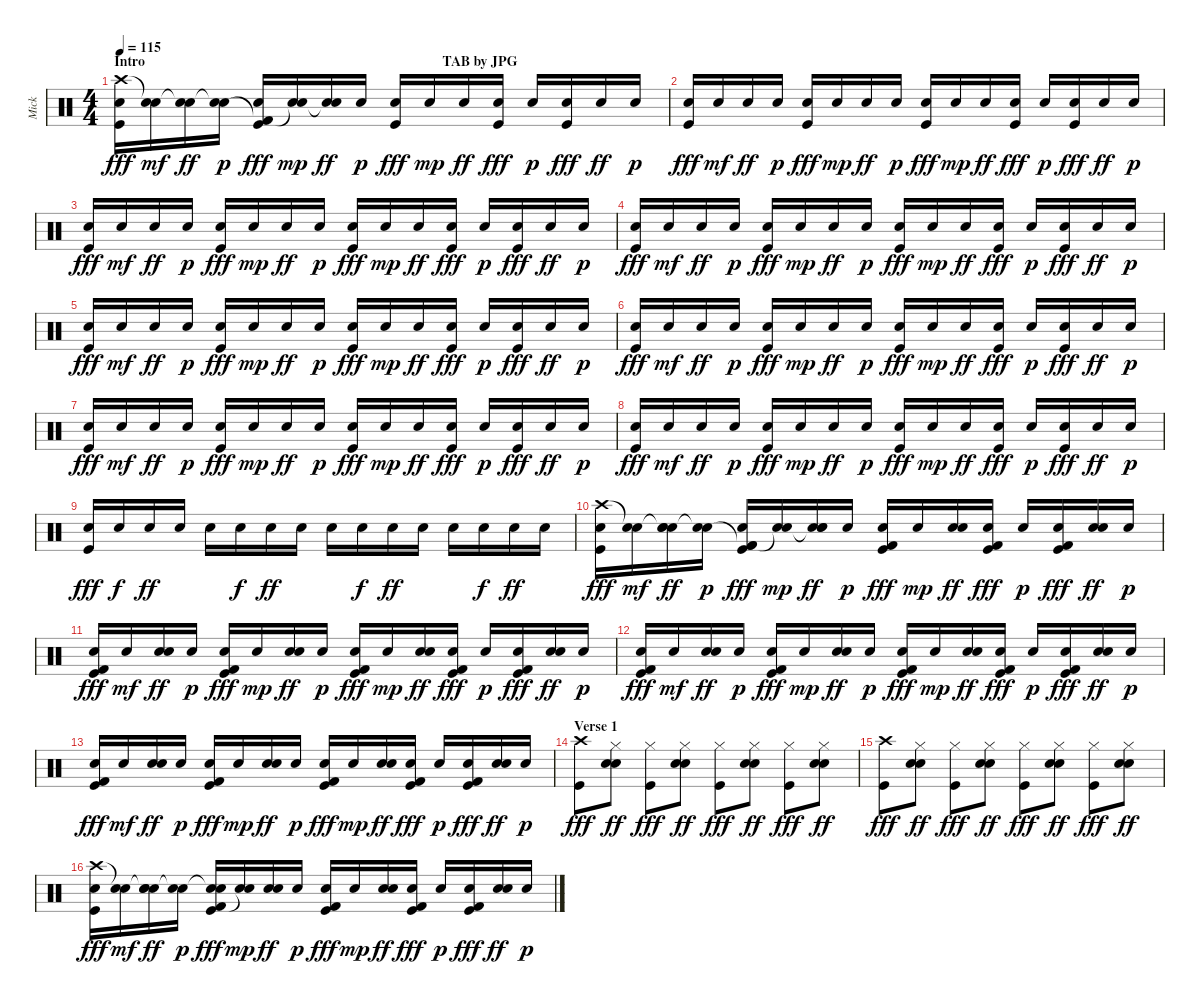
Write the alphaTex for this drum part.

\track ("Mick" "Mick") {instrument percussion}
\staff {score}
\articulation defaults
\ts (4 4)
\section ("" "Intro                                                                                     TAB by JPG")
\tempo 115
\clef neutral
\ks c
("Crash high (hit)" "Electric Snare (hit)" "Kick (hit)").16{dy fff volume 15} ("Snare (hit)"{t} "Electric Snare (hit)").16{dy mf} ("Snare (hit)"{t} "Electric Snare (hit)").16{dy ff} ("Snare (hit)"{t} "Electric Snare (hit)").16{dy p} ("Kick (hit) 2"{t} "Electric Snare (hit)" "Kick (hit)").16{dy fff} ("Snare (hit)"{t} "Electric Snare (hit)").16{dy mp} ("Snare (hit)"{t} "Electric Snare (hit)").16{dy ff} "Electric Snare (hit)".16{dy p} ("Electric Snare (hit)" "Kick (hit)").16{dy fff} "Electric Snare (hit)".16{dy mp} "Electric Snare (hit)".16{dy ff} ("Electric Snare (hit)" "Kick (hit)").16{dy fff} "Electric Snare (hit)".16{dy p} ("Electric Snare (hit)" "Kick (hit)").16{dy fff} "Electric Snare (hit)".16{dy ff} "Electric Snare (hit)".16{dy p} |
("Electric Snare (hit)" "Kick (hit)").16{dy fff} "Electric Snare (hit)".16{dy mf} "Electric Snare (hit)".16{dy ff} "Electric Snare (hit)".16{dy p} ("Electric Snare (hit)" "Kick (hit)").16{dy fff} "Electric Snare (hit)".16{dy mp} "Electric Snare (hit)".16{dy ff} "Electric Snare (hit)".16{dy p} ("Electric Snare (hit)" "Kick (hit)").16{dy fff} "Electric Snare (hit)".16{dy mp} "Electric Snare (hit)".16{dy ff} ("Electric Snare (hit)" "Kick (hit)").16{dy fff} "Electric Snare (hit)".16{dy p} ("Electric Snare (hit)" "Kick (hit)").16{dy fff} "Electric Snare (hit)".16{dy ff} "Electric Snare (hit)".16{dy p} |
("Electric Snare (hit)" "Kick (hit)").16{dy fff} "Electric Snare (hit)".16{dy mf} "Electric Snare (hit)".16{dy ff} "Electric Snare (hit)".16{dy p} ("Electric Snare (hit)" "Kick (hit)").16{dy fff} "Electric Snare (hit)".16{dy mp} "Electric Snare (hit)".16{dy ff} "Electric Snare (hit)".16{dy p} ("Electric Snare (hit)" "Kick (hit)").16{dy fff} "Electric Snare (hit)".16{dy mp} "Electric Snare (hit)".16{dy ff} ("Electric Snare (hit)" "Kick (hit)").16{dy fff} "Electric Snare (hit)".16{dy p} ("Electric Snare (hit)" "Kick (hit)").16{dy fff} "Electric Snare (hit)".16{dy ff} "Electric Snare (hit)".16{dy p} |
("Electric Snare (hit)" "Kick (hit)").16{dy fff} "Electric Snare (hit)".16{dy mf} "Electric Snare (hit)".16{dy ff} "Electric Snare (hit)".16{dy p} ("Electric Snare (hit)" "Kick (hit)").16{dy fff} "Electric Snare (hit)".16{dy mp} "Electric Snare (hit)".16{dy ff} "Electric Snare (hit)".16{dy p} ("Electric Snare (hit)" "Kick (hit)").16{dy fff} "Electric Snare (hit)".16{dy mp} "Electric Snare (hit)".16{dy ff} ("Electric Snare (hit)" "Kick (hit)").16{dy fff} "Electric Snare (hit)".16{dy p} ("Electric Snare (hit)" "Kick (hit)").16{dy fff} "Electric Snare (hit)".16{dy ff} "Electric Snare (hit)".16{dy p} |
("Electric Snare (hit)" "Kick (hit)").16{dy fff} "Electric Snare (hit)".16{dy mf} "Electric Snare (hit)".16{dy ff} "Electric Snare (hit)".16{dy p} ("Electric Snare (hit)" "Kick (hit)").16{dy fff} "Electric Snare (hit)".16{dy mp} "Electric Snare (hit)".16{dy ff} "Electric Snare (hit)".16{dy p} ("Electric Snare (hit)" "Kick (hit)").16{dy fff} "Electric Snare (hit)".16{dy mp} "Electric Snare (hit)".16{dy ff} ("Electric Snare (hit)" "Kick (hit)").16{dy fff} "Electric Snare (hit)".16{dy p} ("Electric Snare (hit)" "Kick (hit)").16{dy fff} "Electric Snare (hit)".16{dy ff} "Electric Snare (hit)".16{dy p} |
("Electric Snare (hit)" "Kick (hit)").16{dy fff} "Electric Snare (hit)".16{dy mf} "Electric Snare (hit)".16{dy ff} "Electric Snare (hit)".16{dy p} ("Electric Snare (hit)" "Kick (hit)").16{dy fff} "Electric Snare (hit)".16{dy mp} "Electric Snare (hit)".16{dy ff} "Electric Snare (hit)".16{dy p} ("Electric Snare (hit)" "Kick (hit)").16{dy fff} "Electric Snare (hit)".16{dy mp} "Electric Snare (hit)".16{dy ff} ("Electric Snare (hit)" "Kick (hit)").16{dy fff} "Electric Snare (hit)".16{dy p} ("Electric Snare (hit)" "Kick (hit)").16{dy fff} "Electric Snare (hit)".16{dy ff} "Electric Snare (hit)".16{dy p} |
("Electric Snare (hit)" "Kick (hit)").16{dy fff} "Electric Snare (hit)".16{dy mf} "Electric Snare (hit)".16{dy ff} "Electric Snare (hit)".16{dy p} ("Electric Snare (hit)" "Kick (hit)").16{dy fff} "Electric Snare (hit)".16{dy mp} "Electric Snare (hit)".16{dy ff} "Electric Snare (hit)".16{dy p} ("Electric Snare (hit)" "Kick (hit)").16{dy fff} "Electric Snare (hit)".16{dy mp} "Electric Snare (hit)".16{dy ff} ("Electric Snare (hit)" "Kick (hit)").16{dy fff} "Electric Snare (hit)".16{dy p} ("Electric Snare (hit)" "Kick (hit)").16{dy fff} "Electric Snare (hit)".16{dy ff} "Electric Snare (hit)".16{dy p} |
("Electric Snare (hit)" "Kick (hit)").16{dy fff} "Electric Snare (hit)".16{dy mf} "Electric Snare (hit)".16{dy ff} "Electric Snare (hit)".16{dy p} ("Electric Snare (hit)" "Kick (hit)").16{dy fff} "Electric Snare (hit)".16{dy mp} "Electric Snare (hit)".16{dy ff} "Electric Snare (hit)".16{dy p} ("Electric Snare (hit)" "Kick (hit)").16{dy fff} "Electric Snare (hit)".16{dy mp} "Electric Snare (hit)".16{dy ff} ("Electric Snare (hit)" "Kick (hit)").16{dy fff} "Electric Snare (hit)".16{dy p} ("Electric Snare (hit)" "Kick (hit)").16{dy fff} "Electric Snare (hit)".16{dy ff} "Electric Snare (hit)".16{dy p} |
("Electric Snare (hit)" "Kick (hit)").16{dy fff} "Electric Snare (hit)".16{dy f} "Electric Snare (hit)".16{dy ff} "Electric Snare (hit)".16 "Electric Snare (hit)".16 "Electric Snare (hit)".16{dy f} "Electric Snare (hit)".16{dy ff} "Electric Snare (hit)".16 "Electric Snare (hit)".16 "Electric Snare (hit)".16{dy f} "Electric Snare (hit)".16{dy ff} "Electric Snare (hit)".16 "Electric Snare (hit)".16 "Electric Snare (hit)".16{dy f} "Electric Snare (hit)".16{dy ff} "Electric Snare (hit)".16 |
("Crash high (hit)" "Electric Snare (hit)" "Kick (hit)").16{dy fff volume 13} ("Snare (hit)"{t} "Electric Snare (hit)").16{dy mf} ("Hand Clap (hit)" "Snare (hit)"{t} "Electric Snare (hit)").16{dy ff} ("Snare (hit)"{t} "Electric Snare (hit)").16{dy p} ("Kick (hit) 2" "Kick (hit) 2"{t} "Electric Snare (hit)" "Kick (hit)").16{dy fff} ("Snare (hit)"{t} "Electric Snare (hit)").16{dy mp} ("Hand Clap (hit)" "Snare (hit)"{t} "Electric Snare (hit)").16{dy ff} "Electric Snare (hit)".16{dy p} ("Kick (hit) 2" "Electric Snare (hit)" "Kick (hit)").16{dy fff} "Electric Snare (hit)".16{dy mp} ("Hand Clap (hit)" "Electric Snare (hit)").16{dy ff} ("Kick (hit) 2" "Electric Snare (hit)" "Kick (hit)").16{dy fff} "Electric Snare (hit)".16{dy p} ("Kick (hit) 2" "Electric Snare (hit)" "Kick (hit)").16{dy fff} ("Hand Clap (hit)" "Electric Snare (hit)").16{dy ff} "Electric Snare (hit)".16{dy p} |
("Kick (hit) 2" "Electric Snare (hit)" "Kick (hit)").16{dy fff} "Electric Snare (hit)".16{dy mf} ("Hand Clap (hit)" "Electric Snare (hit)").16{dy ff} "Electric Snare (hit)".16{dy p} ("Kick (hit) 2" "Electric Snare (hit)" "Kick (hit)").16{dy fff} "Electric Snare (hit)".16{dy mp} ("Hand Clap (hit)" "Electric Snare (hit)").16{dy ff} "Electric Snare (hit)".16{dy p} ("Kick (hit) 2" "Electric Snare (hit)" "Kick (hit)").16{dy fff} "Electric Snare (hit)".16{dy mp} ("Hand Clap (hit)" "Electric Snare (hit)").16{dy ff} ("Kick (hit) 2" "Electric Snare (hit)" "Kick (hit)").16{dy fff} "Electric Snare (hit)".16{dy p} ("Kick (hit) 2" "Electric Snare (hit)" "Kick (hit)").16{dy fff} ("Hand Clap (hit)" "Electric Snare (hit)").16{dy ff} "Electric Snare (hit)".16{dy p} |
("Kick (hit) 2" "Electric Snare (hit)" "Kick (hit)").16{dy fff} "Electric Snare (hit)".16{dy mf} ("Hand Clap (hit)" "Electric Snare (hit)").16{dy ff} "Electric Snare (hit)".16{dy p} ("Kick (hit) 2" "Electric Snare (hit)" "Kick (hit)").16{dy fff} "Electric Snare (hit)".16{dy mp} ("Hand Clap (hit)" "Electric Snare (hit)").16{dy ff} "Electric Snare (hit)".16{dy p} ("Kick (hit) 2" "Electric Snare (hit)" "Kick (hit)").16{dy fff} "Electric Snare (hit)".16{dy mp} ("Hand Clap (hit)" "Electric Snare (hit)").16{dy ff} ("Kick (hit) 2" "Electric Snare (hit)" "Kick (hit)").16{dy fff} "Electric Snare (hit)".16{dy p} ("Kick (hit) 2" "Electric Snare (hit)" "Kick (hit)").16{dy fff} ("Hand Clap (hit)" "Electric Snare (hit)").16{dy ff} "Electric Snare (hit)".16{dy p} |
("Kick (hit) 2" "Electric Snare (hit)" "Kick (hit)").16{dy fff} "Electric Snare (hit)".16{dy mf} ("Hand Clap (hit)" "Electric Snare (hit)").16{dy ff} "Electric Snare (hit)".16{dy p} ("Kick (hit) 2" "Electric Snare (hit)" "Kick (hit)").16{dy fff} "Electric Snare (hit)".16{dy mp} ("Hand Clap (hit)" "Electric Snare (hit)").16{dy ff} "Electric Snare (hit)".16{dy p} ("Kick (hit) 2" "Electric Snare (hit)" "Kick (hit)").16{dy fff} "Electric Snare (hit)".16{dy mp} ("Hand Clap (hit)" "Electric Snare (hit)").16{dy ff} ("Kick (hit) 2" "Electric Snare (hit)" "Kick (hit)").16{dy fff} "Electric Snare (hit)".16{dy p} ("Kick (hit) 2" "Electric Snare (hit)" "Kick (hit)").16{dy fff} ("Hand Clap (hit)" "Electric Snare (hit)").16{dy ff} "Electric Snare (hit)".16{dy p} |
\section ("" "Verse 1")
("Crash high (hit)" "Kick (hit)").8{dy fff} ("Hand Clap (hit)" "Hi-Hat (closed)" "Electric Snare (hit)").8{dy ff} ("Hi-Hat (closed)" "Kick (hit)").8{dy fff} ("Hand Clap (hit)" "Hi-Hat (closed)" "Electric Snare (hit)").8{dy ff} ("Hi-Hat (closed)" "Kick (hit)").8{dy fff} ("Hand Clap (hit)" "Hi-Hat (closed)" "Electric Snare (hit)").8{dy ff} ("Hi-Hat (closed)" "Kick (hit)").8{dy fff} ("Hand Clap (hit)" "Hi-Hat (closed)" "Electric Snare (hit)").8{dy ff} |
("Crash high (hit)" "Kick (hit)").8{dy fff} ("Hand Clap (hit)" "Hi-Hat (closed)" "Electric Snare (hit)").8{dy ff} ("Hi-Hat (closed)" "Kick (hit)").8{dy fff} ("Hand Clap (hit)" "Hi-Hat (closed)" "Electric Snare (hit)").8{dy ff} ("Hi-Hat (closed)" "Kick (hit)").8{dy fff} ("Hand Clap (hit)" "Hi-Hat (closed)" "Electric Snare (hit)").8{dy ff} ("Hi-Hat (closed)" "Kick (hit)").8{dy fff} ("Hand Clap (hit)" "Hi-Hat (closed)" "Electric Snare (hit)").8{dy ff} |
("Crash high (hit)" "Electric Snare (hit)" "Kick (hit)").16{dy fff} ("Snare (hit)"{t} "Electric Snare (hit)").16{dy mf} ("Hand Clap (hit)" "Snare (hit)"{t} "Electric Snare (hit)").16{dy ff} ("Snare (hit)"{t} "Electric Snare (hit)").16{dy p} ("Kick (hit) 2" "Snare (hit)"{t} "Electric Snare (hit)" "Kick (hit)").16{dy fff} ("Snare (hit)"{t} "Electric Snare (hit)").16{dy mp} ("Hand Clap (hit)" "Electric Snare (hit)").16{dy ff} "Electric Snare (hit)".16{dy p} ("Kick (hit) 2" "Electric Snare (hit)" "Kick (hit)").16{dy fff} "Electric Snare (hit)".16{dy mp} ("Hand Clap (hit)" "Electric Snare (hit)").16{dy ff} ("Kick (hit) 2" "Electric Snare (hit)" "Kick (hit)").16{dy fff} "Electric Snare (hit)".16{dy p} ("Kick (hit) 2" "Electric Snare (hit)" "Kick (hit)").16{dy fff} ("Hand Clap (hit)" "Electric Snare (hit)").16{dy ff} "Electric Snare (hit)".16{dy p}
